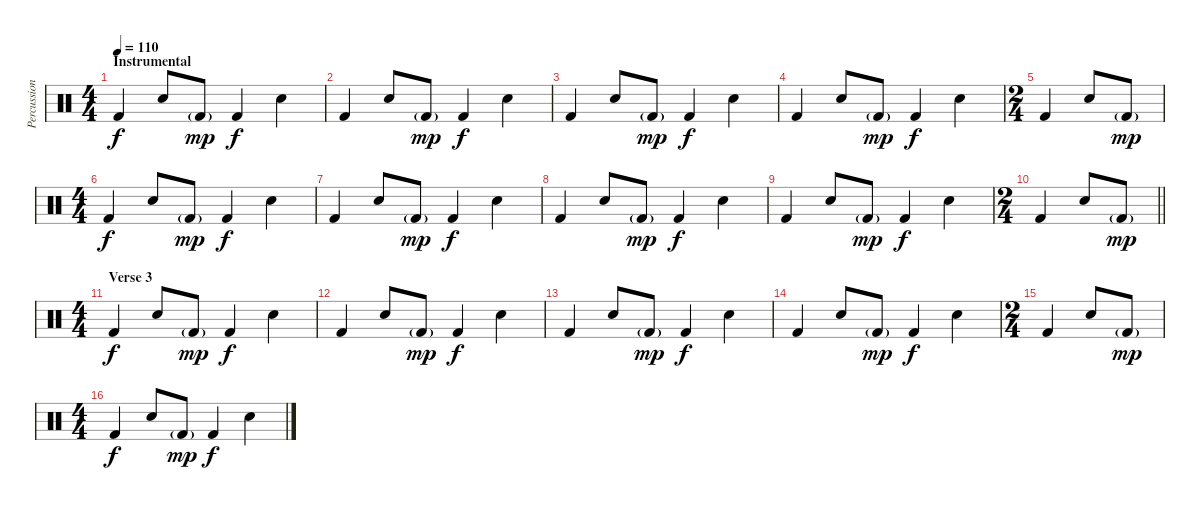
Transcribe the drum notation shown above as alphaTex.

\track ("Percussion" "Percussion") {instrument percussion}
\staff {score}
\articulation defaults
\ts (4 4)
\section ("" "Instrumental")
\tempo 110
\clef neutral
\ks c "Kick (hit) 2".4{dy f} "Snare (hit) 2".8 "Kick (hit) 2"{g}.8{dy mp} "Kick (hit) 2".4{dy f} "Snare (hit) 2".4
|
"Kick (hit) 2".4 "Snare (hit) 2".8 "Kick (hit) 2"{g}.8{dy mp} "Kick (hit) 2".4{dy f} "Snare (hit) 2".4 |
"Kick (hit) 2".4 "Snare (hit) 2".8 "Kick (hit) 2"{g}.8{dy mp} "Kick (hit) 2".4{dy f} "Snare (hit) 2".4 |
"Kick (hit) 2".4 "Snare (hit) 2".8 "Kick (hit) 2"{g}.8{dy mp} "Kick (hit) 2".4{dy f} "Snare (hit) 2".4 |
\ts (2 4)
"Kick (hit) 2".4 "Snare (hit) 2".8 "Kick (hit) 2"{g}.8{dy mp} |
\ts (4 4)
"Kick (hit) 2".4{dy f} "Snare (hit) 2".8 "Kick (hit) 2"{g}.8{dy mp} "Kick (hit) 2".4{dy f} "Snare (hit) 2".4 |
"Kick (hit) 2".4 "Snare (hit) 2".8 "Kick (hit) 2"{g}.8{dy mp} "Kick (hit) 2".4{dy f} "Snare (hit) 2".4 |
"Kick (hit) 2".4 "Snare (hit) 2".8 "Kick (hit) 2"{g}.8{dy mp} "Kick (hit) 2".4{dy f} "Snare (hit) 2".4 |
"Kick (hit) 2".4 "Snare (hit) 2".8 "Kick (hit) 2"{g}.8{dy mp} "Kick (hit) 2".4{dy f} "Snare (hit) 2".4 |
\ts (2 4)
\barLineRight lightlight "Kick (hit) 2".4 "Snare (hit) 2".8 "Kick (hit) 2"{g}.8{dy mp}
|
\ts (4 4)
\section ("" "Verse 3")
"Kick (hit) 2".4{dy f} "Snare (hit) 2".8 "Kick (hit) 2"{g}.8{dy mp} "Kick (hit) 2".4{dy f} "Snare (hit) 2".4 |
"Kick (hit) 2".4 "Snare (hit) 2".8 "Kick (hit) 2"{g}.8{dy mp} "Kick (hit) 2".4{dy f} "Snare (hit) 2".4 |
"Kick (hit) 2".4 "Snare (hit) 2".8 "Kick (hit) 2"{g}.8{dy mp} "Kick (hit) 2".4{dy f} "Snare (hit) 2".4 |
"Kick (hit) 2".4 "Snare (hit) 2".8 "Kick (hit) 2"{g}.8{dy mp} "Kick (hit) 2".4{dy f} "Snare (hit) 2".4 |
\ts (2 4)
"Kick (hit) 2".4 "Snare (hit) 2".8 "Kick (hit) 2"{g}.8{dy mp} |
\ts (4 4)
"Kick (hit) 2".4{dy f} "Snare (hit) 2".8 "Kick (hit) 2"{g}.8{dy mp} "Kick (hit) 2".4{dy f} "Snare (hit) 2".4
